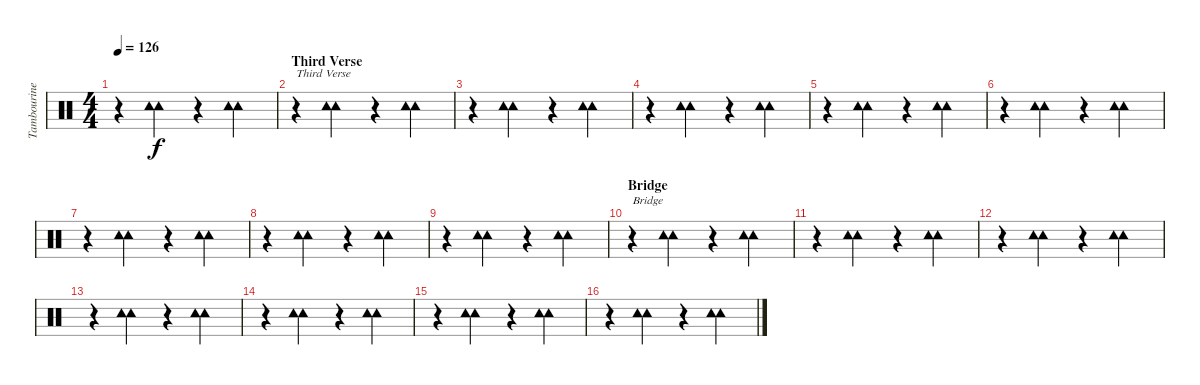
\track ("Tambourine" "Tambourine") {instrument percussion}
\staff {score}
\articulation defaults
\ts (4 4)
\tempo 126
\clef neutral
\ks c
r.4{dy f} ("Tambourine (hit)" "Tambourine (hit)").4 r.4 ("Tambourine (hit)" "Tambourine (hit)").4 |
\section ("" "Third Verse")
r.4{txt "Third Verse"} ("Tambourine (hit)" "Tambourine (hit)").4 r.4 ("Tambourine (hit)" "Tambourine (hit)").4 |
r.4 ("Tambourine (hit)" "Tambourine (hit)").4 r.4 ("Tambourine (hit)" "Tambourine (hit)").4 |
r.4 ("Tambourine (hit)" "Tambourine (hit)").4 r.4 ("Tambourine (hit)" "Tambourine (hit)").4 |
r.4 ("Tambourine (hit)" "Tambourine (hit)").4 r.4 ("Tambourine (hit)" "Tambourine (hit)").4 |
r.4 ("Tambourine (hit)" "Tambourine (hit)").4 r.4 ("Tambourine (hit)" "Tambourine (hit)").4 |
r.4 ("Tambourine (hit)" "Tambourine (hit)").4 r.4 ("Tambourine (hit)" "Tambourine (hit)").4 |
r.4 ("Tambourine (hit)" "Tambourine (hit)").4 r.4 ("Tambourine (hit)" "Tambourine (hit)").4 |
r.4 ("Tambourine (hit)" "Tambourine (hit)").4 r.4 ("Tambourine (hit)" "Tambourine (hit)").4 |
\section ("" "Bridge")
r.4{txt "Bridge"} ("Tambourine (hit)" "Tambourine (hit)").4 r.4 ("Tambourine (hit)" "Tambourine (hit)").4 |
r.4 ("Tambourine (hit)" "Tambourine (hit)").4 r.4 ("Tambourine (hit)" "Tambourine (hit)").4 |
r.4 ("Tambourine (hit)" "Tambourine (hit)").4 r.4 ("Tambourine (hit)" "Tambourine (hit)").4 |
r.4 ("Tambourine (hit)" "Tambourine (hit)").4 r.4 ("Tambourine (hit)" "Tambourine (hit)").4 |
r.4 ("Tambourine (hit)" "Tambourine (hit)").4 r.4 ("Tambourine (hit)" "Tambourine (hit)").4 |
r.4 ("Tambourine (hit)" "Tambourine (hit)").4 r.4 ("Tambourine (hit)" "Tambourine (hit)").4 |
r.4 ("Tambourine (hit)" "Tambourine (hit)").4 r.4 ("Tambourine (hit)" "Tambourine (hit)").4
